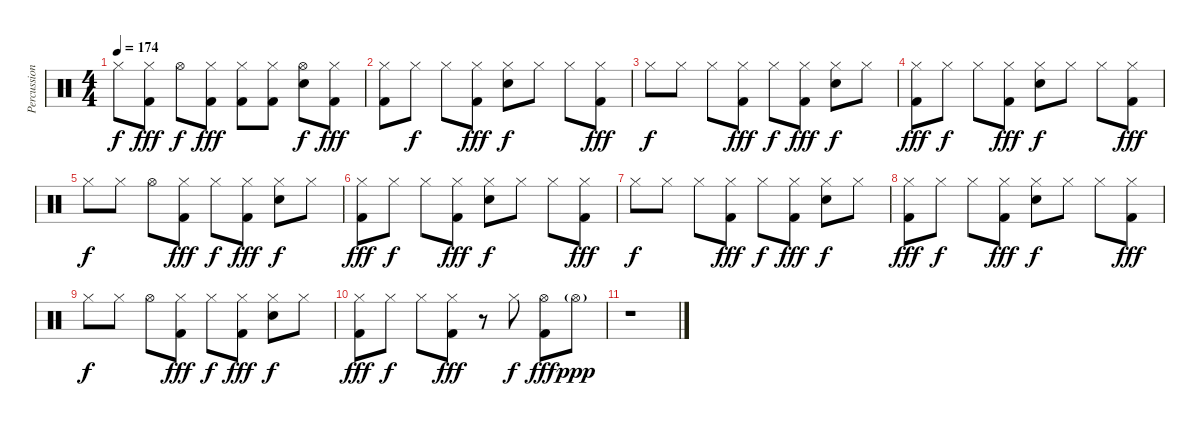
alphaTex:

\track ("Percussion" "Percussion") {instrument percussion}
\staff {score}
\articulation defaults
\ts (4 4)
\tempo 174
\clef neutral
\ks c "Hi-Hat (closed)".8{dy f}
("Hi-Hat (closed)" "Kick (hit) 2").8{dy fff} "Hi-Hat (open)".8{dy f} ("Hi-Hat (closed)" "Kick (hit) 2").8{dy fff} ("Hi-Hat (closed)" "Kick (hit) 2").8 ("Hi-Hat (closed)" "Kick (hit) 2").8 ("Hi-Hat (open)" "Snare (hit) 2").8{dy f} ("Hi-Hat (closed)" "Kick (hit) 2").8{dy fff} |
("Hi-Hat (closed)" "Kick (hit) 2").8 "Hi-Hat (closed)".8{dy f} "Hi-Hat (closed)".8 ("Hi-Hat (closed)" "Kick (hit) 2").8{dy fff} ("Hi-Hat (closed)" "Snare (hit) 2").8{dy f} "Hi-Hat (closed)".8 "Hi-Hat (closed)".8 ("Hi-Hat (closed)" "Kick (hit) 2").8{dy fff} |
"Hi-Hat (closed)".8{dy f} "Hi-Hat (closed)".8 "Hi-Hat (closed)".8 ("Hi-Hat (closed)" "Kick (hit) 2").8{dy fff} "Hi-Hat (closed)".8{dy f} ("Hi-Hat (closed)" "Kick (hit) 2").8{dy fff} ("Hi-Hat (closed)" "Snare (hit) 2").8{dy f} "Hi-Hat (closed)".8 |
("Hi-Hat (closed)" "Kick (hit) 2").8{dy fff} "Hi-Hat (closed)".8{dy f} "Hi-Hat (closed)".8 ("Hi-Hat (closed)" "Kick (hit) 2").8{dy fff} ("Hi-Hat (closed)" "Snare (hit) 2").8{dy f} "Hi-Hat (closed)".8 "Hi-Hat (closed)".8 ("Hi-Hat (closed)" "Kick (hit) 2").8{dy fff} |
"Hi-Hat (closed)".8{dy f} "Hi-Hat (closed)".8 "Hi-Hat (open)".8 ("Hi-Hat (closed)" "Kick (hit) 2").8{dy fff} "Hi-Hat (closed)".8{dy f} ("Hi-Hat (closed)" "Kick (hit) 2").8{dy fff} ("Hi-Hat (closed)" "Snare (hit) 2").8{dy f} "Hi-Hat (closed)".8 |
("Hi-Hat (closed)" "Kick (hit) 2").8{dy fff} "Hi-Hat (closed)".8{dy f} "Hi-Hat (closed)".8 ("Hi-Hat (closed)" "Kick (hit) 2").8{dy fff} ("Hi-Hat (closed)" "Snare (hit) 2").8{dy f} "Hi-Hat (closed)".8 "Hi-Hat (closed)".8 ("Hi-Hat (closed)" "Kick (hit) 2").8{dy fff} |
"Hi-Hat (closed)".8{dy f} "Hi-Hat (closed)".8 "Hi-Hat (closed)".8 ("Hi-Hat (closed)" "Kick (hit) 2").8{dy fff} "Hi-Hat (closed)".8{dy f} ("Hi-Hat (closed)" "Kick (hit) 2").8{dy fff} ("Hi-Hat (closed)" "Snare (hit) 2").8{dy f} "Hi-Hat (closed)".8 |
("Hi-Hat (closed)" "Kick (hit) 2").8{dy fff} "Hi-Hat (closed)".8{dy f} "Hi-Hat (closed)".8 ("Hi-Hat (closed)" "Kick (hit) 2").8{dy fff} ("Hi-Hat (closed)" "Snare (hit) 2").8{dy f} "Hi-Hat (closed)".8 "Hi-Hat (closed)".8 ("Hi-Hat (closed)" "Kick (hit) 2").8{dy fff} |
"Hi-Hat (closed)".8{dy f} "Hi-Hat (closed)".8 "Hi-Hat (open)".8 ("Hi-Hat (closed)" "Kick (hit) 2").8{dy fff} "Hi-Hat (closed)".8{dy f} ("Hi-Hat (closed)" "Kick (hit) 2").8{dy fff} ("Hi-Hat (closed)" "Snare (hit) 2").8{dy f} "Hi-Hat (closed)".8 |
("Hi-Hat (closed)" "Kick (hit) 2").8{dy fff} "Hi-Hat (closed)".8{dy f} "Hi-Hat (closed)".8 ("Hi-Hat (closed)" "Kick (hit) 2").8{dy fff} r.8 "Hi-Hat (closed)".8{dy f} ("Hi-Hat (open)" "Kick (hit) 2").8{dy fff} "Hi-Hat (open)"{g}.8{dy ppp} |
r.1
